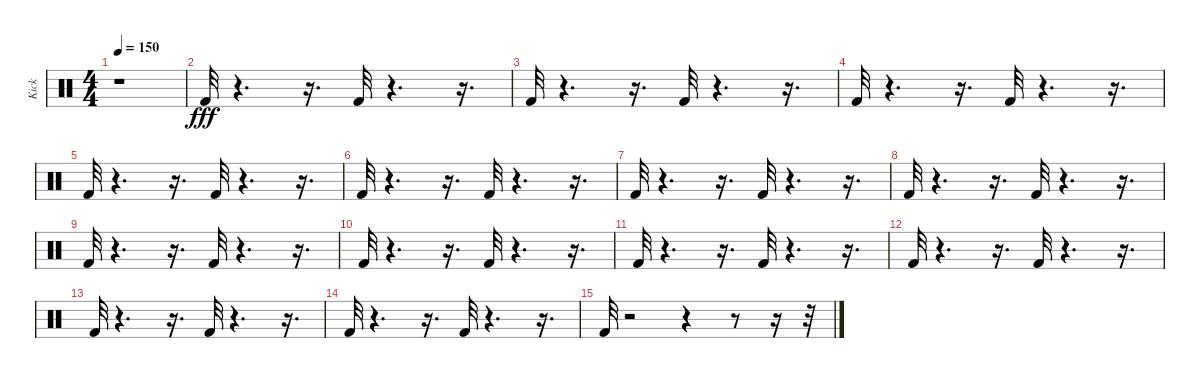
\track ("Kick" "Kick") {instrument percussion}
\staff {score}
\articulation defaults
\ts (4 4)
\tempo 150
\clef neutral
\ks c
r.1{dy fff} |
"Kick (hit) 2".32 r.4{d} r.16{d} "Kick (hit) 2".32 r.4{d} r.16{d} |
"Kick (hit) 2".32 r.4{d} r.16{d} "Kick (hit) 2".32 r.4{d} r.16{d} |
"Kick (hit) 2".32 r.4{d} r.16{d} "Kick (hit) 2".32 r.4{d} r.16{d} |
"Kick (hit) 2".32 r.4{d} r.16{d} "Kick (hit) 2".32 r.4{d} r.16{d} |
"Kick (hit) 2".32 r.4{d} r.16{d} "Kick (hit) 2".32 r.4{d} r.16{d} |
"Kick (hit) 2".32 r.4{d} r.16{d} "Kick (hit) 2".32 r.4{d} r.16{d} |
"Kick (hit) 2".32 r.4{d} r.16{d} "Kick (hit) 2".32 r.4{d} r.16{d} |
"Kick (hit) 2".32 r.4{d} r.16{d} "Kick (hit) 2".32 r.4{d} r.16{d} |
"Kick (hit) 2".32 r.4{d} r.16{d} "Kick (hit) 2".32 r.4{d} r.16{d} |
"Kick (hit) 2".32 r.4{d} r.16{d} "Kick (hit) 2".32 r.4{d} r.16{d} |
"Kick (hit) 2".32 r.4{d} r.16{d} "Kick (hit) 2".32 r.4{d} r.16{d} |
"Kick (hit) 2".32 r.4{d} r.16{d} "Kick (hit) 2".32 r.4{d} r.16{d} |
"Kick (hit) 2".32 r.4{d} r.16{d} "Kick (hit) 2".32 r.4{d} r.16{d} |
"Kick (hit) 2".32 r.2 r.4 r.8 r.16 r.32
